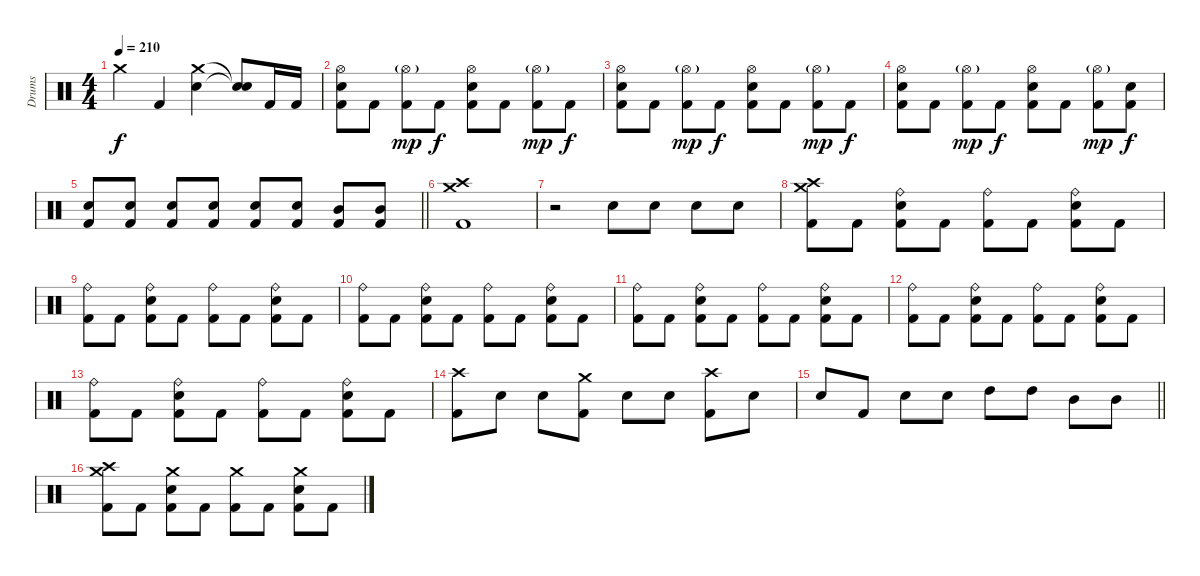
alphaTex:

\track ("Drums" "Drums") {instrument percussion}
\staff {score}
\articulation defaults
\ts (4 4)
\tempo 210
\clef neutral
\ks c "Crash medium (hit)".4{dy f} "Kick (hit) 2".4
("Crash medium (hit)" "Electric Snare (hit)").4 ("Snare (hit)"{t} "Snare (hit)"{t}).8 "Kick (hit) 2".16 "Kick (hit) 2".16 |
("Hi-Hat (open)" "Electric Snare (hit)" "Kick (hit) 2").8 "Kick (hit) 2".8 ("Hi-Hat (open)"{g} "Kick (hit) 2").8{dy mp} "Kick (hit) 2".8{dy f} ("Hi-Hat (open)" "Electric Snare (hit)" "Kick (hit) 2").8 "Kick (hit) 2".8 ("Hi-Hat (open)"{g} "Kick (hit) 2").8{dy mp} "Kick (hit) 2".8{dy f} |
("Hi-Hat (open)" "Electric Snare (hit)" "Kick (hit) 2").8 "Kick (hit) 2".8 ("Hi-Hat (open)"{g} "Kick (hit) 2").8{dy mp} "Kick (hit) 2".8{dy f} ("Hi-Hat (open)" "Electric Snare (hit)" "Kick (hit) 2").8 "Kick (hit) 2".8 ("Hi-Hat (open)"{g} "Kick (hit) 2").8{dy mp} "Kick (hit) 2".8{dy f} |
("Hi-Hat (open)" "Electric Snare (hit)" "Kick (hit) 2").8 "Kick (hit) 2".8 ("Hi-Hat (open)"{g} "Kick (hit) 2").8{dy mp} "Kick (hit) 2".8{dy f} ("Hi-Hat (open)" "Electric Snare (hit)" "Kick (hit) 2").8 "Kick (hit) 2".8 ("Hi-Hat (open)"{g} "Kick (hit) 2").8{dy mp} ("Electric Snare (hit)" "Kick (hit) 2").8{dy f} |
\barLineRight lightlight
("Electric Snare (hit)" "Kick (hit) 2").8 ("Electric Snare (hit)" "Kick (hit) 2").8 ("Electric Snare (hit)" "Kick (hit) 2").8 ("Electric Snare (hit)" "Kick (hit) 2").8 ("Electric Snare (hit)" "Kick (hit) 2").8 ("Electric Snare (hit)" "Kick (hit) 2").8 ("Mid Tom (hit)" "Kick (hit) 2").8 ("Mid Tom (hit)" "Kick (hit) 2").8 |
("Crash high (hit)" "Crash medium (hit)" "Kick (hit) 2").1 |
r.2 "Electric Snare (hit)".8 "Electric Snare (hit)".8 "Electric Snare (hit)".8 "Electric Snare (hit)".8 |
("Crash high (hit)" "Crash medium (hit)" "Kick (hit) 2").8 "Kick (hit) 2".8 ("Ride (bell)" "Electric Snare (hit)" "Kick (hit) 2").8 "Kick (hit) 2".8 ("Ride (bell)" "Kick (hit) 2").8 "Kick (hit) 2".8 ("Ride (bell)" "Electric Snare (hit)" "Kick (hit) 2").8 "Kick (hit) 2".8 |
("Ride (bell)" "Kick (hit) 2").8 "Kick (hit) 2".8 ("Ride (bell)" "Electric Snare (hit)" "Kick (hit) 2").8 "Kick (hit) 2".8 ("Ride (bell)" "Kick (hit) 2").8 "Kick (hit) 2".8 ("Ride (bell)" "Electric Snare (hit)" "Kick (hit) 2").8 "Kick (hit) 2".8 |
("Ride (bell)" "Kick (hit) 2").8 "Kick (hit) 2".8 ("Ride (bell)" "Electric Snare (hit)" "Kick (hit) 2").8 "Kick (hit) 2".8 ("Ride (bell)" "Kick (hit) 2").8 "Kick (hit) 2".8 ("Ride (bell)" "Electric Snare (hit)" "Kick (hit) 2").8 "Kick (hit) 2".8 |
("Ride (bell)" "Kick (hit) 2").8 "Kick (hit) 2".8 ("Ride (bell)" "Electric Snare (hit)" "Kick (hit) 2").8 "Kick (hit) 2".8 ("Ride (bell)" "Kick (hit) 2").8 "Kick (hit) 2".8 ("Ride (bell)" "Electric Snare (hit)" "Kick (hit) 2").8 "Kick (hit) 2".8 |
("Ride (bell)" "Kick (hit) 2").8 "Kick (hit) 2".8 ("Ride (bell)" "Electric Snare (hit)" "Kick (hit) 2").8 "Kick (hit) 2".8 ("Ride (bell)" "Kick (hit) 2").8 "Kick (hit) 2".8 ("Ride (bell)" "Electric Snare (hit)" "Kick (hit) 2").8 "Kick (hit) 2".8 |
("Ride (bell)" "Kick (hit) 2").8 "Kick (hit) 2".8 ("Ride (bell)" "Electric Snare (hit)" "Kick (hit) 2").8 "Kick (hit) 2".8 ("Ride (bell)" "Kick (hit) 2").8 "Kick (hit) 2".8 ("Ride (bell)" "Electric Snare (hit)" "Kick (hit) 2").8 "Kick (hit) 2".8 |
("Crash high (hit)" "Kick (hit) 2").8 "Electric Snare (hit)".8 "Electric Snare (hit)".8 ("Crash medium (hit)" "Kick (hit) 2").8 "Electric Snare (hit)".8 "Electric Snare (hit)".8 ("Crash high (hit)" "Kick (hit) 2").8 "Electric Snare (hit)".8 |
\barLineRight lightlight "Electric Snare (hit)".8 "Kick (hit) 2".8 "Electric Snare (hit)".8 "Electric Snare (hit)".8 "High Tom (hit)".8 "High Tom (hit)".8 "Mid Tom (hit)".8 "Mid Tom (hit)".8
|
("Crash medium (hit)" "Crash high (hit)" "Kick (hit) 2").8 "Kick (hit) 2".8 ("Crash medium (hit)" "Electric Snare (hit)" "Kick (hit) 2").8 "Kick (hit) 2".8 ("Crash medium (hit)" "Kick (hit) 2").8 "Kick (hit) 2".8 ("Crash medium (hit)" "Electric Snare (hit)" "Kick (hit) 2").8 "Kick (hit) 2".8
